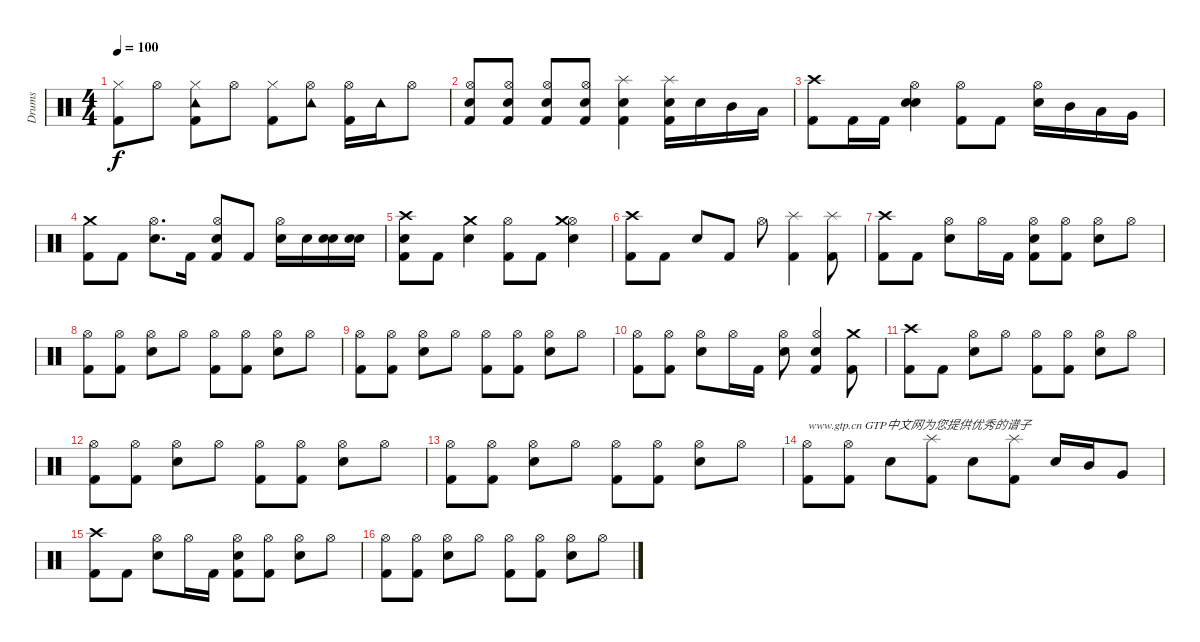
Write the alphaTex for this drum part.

\track ("Drums" "Drums") {instrument percussion}
\staff {score}
\articulation defaults
\ts (4 4)
\tempo 100
\clef neutral
\ks c
("Kick (hit) 2" "Hi-Hat (closed)").8{dy f} "Hi-Hat (open)".8 ("Kick (hit) 2" "Hi-Hat (closed)" "Tambourine (hit)").8 "Hi-Hat (open)".8 ("Kick (hit) 2" "Hi-Hat (closed)").8 ("Hi-Hat (open)" "Tambourine (hit)").8 ("Kick (hit) 2" "Hi-Hat (open)").16 "Tambourine (hit)".16 "Hi-Hat (open)".8 |
("Kick (hit) 2" "Hi-Hat (open)" "Snare (hit) 2").8 ("Kick (hit) 2" "Hi-Hat (open)" "Snare (hit) 2").8 ("Kick (hit) 2" "Hi-Hat (open)" "Snare (hit) 2").8 ("Kick (hit) 2" "Hi-Hat (open)" "Snare (hit) 2").8 ("Kick (hit) 2" "Splash (hit)" "Snare (hit) 2").4 ("Kick (hit) 2" "Splash (hit)" "Snare (hit) 2").16 "Snare (hit) 2".16 "Mid Tom (hit)".16 "Low Tom (hit)".16 |
("Kick (hit) 2" "Crash high (hit)").8 "Kick (hit) 2".16 "Kick (hit) 2".16 ("Snare (hit)" "Hi-Hat (open)" "Snare (hit) 2").4 ("Kick (hit) 2" "Hi-Hat (open)").8 "Kick (hit) 2".8 ("Hi-Hat (open)" "Snare (hit) 2").16 "Mid Tom (hit)".16 "Low Tom (hit)".16 "Very Low Tom (hit)".16 |
("Kick (hit) 2" "Crash medium (hit)").8 "Kick (hit) 2".8 ("Hi-Hat (open)" "Snare (hit) 2").8{d} "Kick (hit) 2".16 ("Snare (hit)" "Kick (hit) 2" "Hi-Hat (open)").8 "Kick (hit) 2".8 ("Hi-Hat (open)" "Snare (hit) 2").16 "Snare (hit) 2".16 ("Snare (hit)" "Snare (hit) 2").16 ("Snare (hit)" "Snare (hit) 2").16 |
("Snare (hit)" "Kick (hit) 2" "Crash high (hit)").8 "Kick (hit) 2".8 ("Crash medium (hit)" "Snare (hit) 2").4 ("Kick (hit) 2" "Hi-Hat (open)").8 "Kick (hit) 2".8 ("Hi-Hat (open)" "Crash medium (hit)" "Snare (hit) 2").4 |
("Kick (hit) 2" "Crash high (hit)").8 "Kick (hit) 2".8 "Snare (hit) 2".8 "Kick (hit) 2".8 "Hi-Hat (open)".8 ("Kick (hit) 2" "Splash (hit)").4 ("Kick (hit) 2" "Splash (hit)").8 |
("Kick (hit) 2" "Crash high (hit)").8 "Kick (hit) 2".8 ("Hi-Hat (open)" "Snare (hit) 2").8 "Hi-Hat (open)".16 "Kick (hit) 2".16 ("Snare (hit)" "Kick (hit) 2" "Hi-Hat (open)").8 ("Kick (hit) 2" "Hi-Hat (open)").8 ("Hi-Hat (open)" "Snare (hit) 2").8 "Hi-Hat (open)".8 |
("Kick (hit) 2" "Hi-Hat (open)").8 ("Kick (hit) 2" "Hi-Hat (open)").8 ("Hi-Hat (open)" "Snare (hit) 2").8 "Hi-Hat (open)".8 ("Kick (hit) 2" "Hi-Hat (open)").8 ("Kick (hit) 2" "Hi-Hat (open)").8 ("Hi-Hat (open)" "Snare (hit) 2").8 "Hi-Hat (open)".8 |
("Kick (hit) 2" "Hi-Hat (open)").8 ("Kick (hit) 2" "Hi-Hat (open)").8 ("Hi-Hat (open)" "Snare (hit) 2").8 "Hi-Hat (open)".8 ("Kick (hit) 2" "Hi-Hat (open)").8 ("Kick (hit) 2" "Hi-Hat (open)").8 ("Hi-Hat (open)" "Snare (hit) 2").8 "Hi-Hat (open)".8 |
("Kick (hit) 2" "Hi-Hat (open)").8 ("Kick (hit) 2" "Hi-Hat (open)").8 ("Hi-Hat (open)" "Snare (hit) 2").8 "Hi-Hat (open)".16 "Kick (hit) 2".16 ("Hi-Hat (open)" "Snare (hit) 2").8 ("Kick (hit) 2" "Hi-Hat (open)" "Snare (hit) 2").4 ("Kick (hit) 2" "Crash medium (hit)").8 |
("Kick (hit) 2" "Crash high (hit)").8 "Kick (hit) 2".8 ("Hi-Hat (open)" "Snare (hit) 2").8 "Hi-Hat (open)".8 ("Kick (hit) 2" "Hi-Hat (open)").8 ("Kick (hit) 2" "Hi-Hat (open)").8 ("Hi-Hat (open)" "Snare (hit) 2").8 "Hi-Hat (open)".8 |
("Kick (hit) 2" "Hi-Hat (open)").8 ("Kick (hit) 2" "Hi-Hat (open)").8 ("Hi-Hat (open)" "Snare (hit) 2").8 "Hi-Hat (open)".8 ("Kick (hit) 2" "Hi-Hat (open)").8 ("Kick (hit) 2" "Hi-Hat (open)").8 ("Hi-Hat (open)" "Snare (hit) 2").8 "Hi-Hat (open)".8 |
("Kick (hit) 2" "Hi-Hat (open)").8 ("Kick (hit) 2" "Hi-Hat (open)").8 ("Hi-Hat (open)" "Snare (hit) 2").8 "Hi-Hat (open)".8 ("Kick (hit) 2" "Hi-Hat (open)").8 ("Kick (hit) 2" "Hi-Hat (open)").8 ("Hi-Hat (open)" "Snare (hit) 2").8 "Hi-Hat (open)".8 |
("Kick (hit) 2" "Hi-Hat (open)").8{txt "www.gtp.cn GTP中文网为您提供优秀的谱子"} ("Kick (hit) 2" "Hi-Hat (open)").8 "Snare (hit) 2".8 ("Kick (hit) 2" "Splash (hit)").8 "Snare (hit) 2".8 ("Kick (hit) 2" "Splash (hit)").8 "Snare (hit) 2".16 "Mid Tom (hit)".16 "Very Low Tom (hit)".8 |
("Kick (hit) 2" "Crash high (hit)").8 "Kick (hit) 2".8 ("Hi-Hat (open)" "Snare (hit) 2").8 "Hi-Hat (open)".16 "Kick (hit) 2".16 ("Snare (hit)" "Kick (hit) 2" "Hi-Hat (open)").8 ("Kick (hit) 2" "Hi-Hat (open)").8 ("Hi-Hat (open)" "Snare (hit) 2").8 "Hi-Hat (open)".8 |
("Kick (hit) 2" "Hi-Hat (open)").8 ("Kick (hit) 2" "Hi-Hat (open)").8 ("Hi-Hat (open)" "Snare (hit) 2").8 "Hi-Hat (open)".8 ("Kick (hit) 2" "Hi-Hat (open)").8 ("Kick (hit) 2" "Hi-Hat (open)").8 ("Hi-Hat (open)" "Snare (hit) 2").8 "Hi-Hat (open)".8
